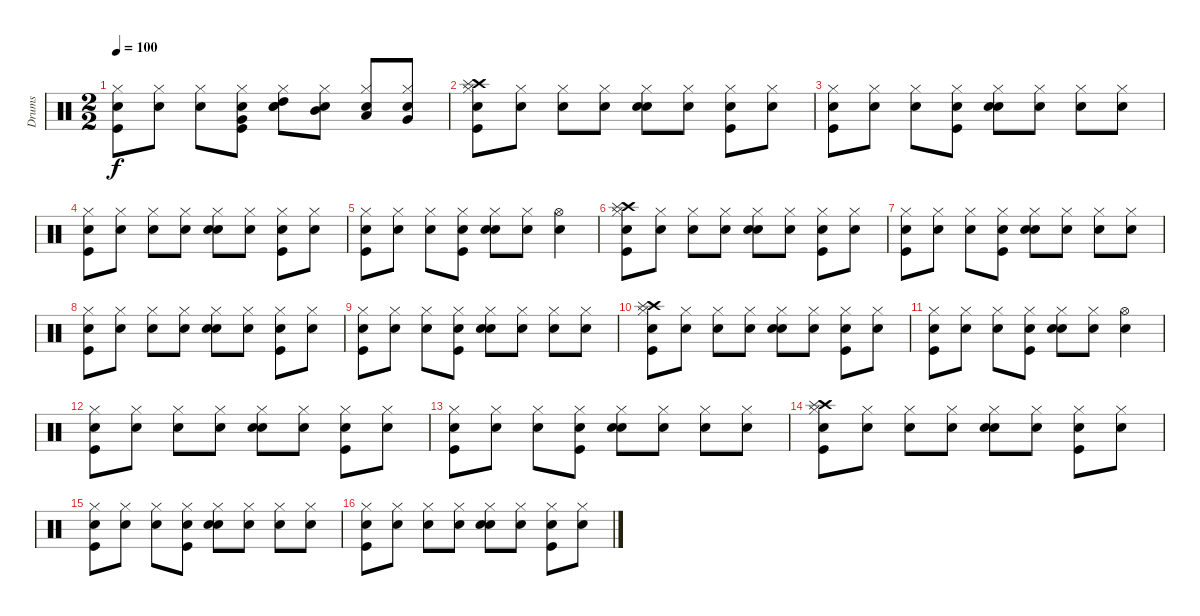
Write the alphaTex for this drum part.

\track ("Drums" "Drums") {instrument percussion}
\staff {score}
\articulation defaults
\ts (2 2)
\tempo 100
\clef neutral
\ks c
("Snare (hit)" "Kick (hit)" "Hi-Hat (closed)").8{dy f} ("Snare (hit)" "Hi-Hat (closed)").8 ("Snare (hit)" "Hi-Hat (closed)").8 ("Snare (hit)" "Very Low Tom (hit)" "Kick (hit)" "Hi-Hat (closed)").8 ("Snare (hit)" "High Tom (hit)" "Snare (hit) 2" "Hi-Hat (closed)").8 ("Snare (hit)" "Mid Tom (hit)" "Hi-Hat (closed)").8 ("Snare (hit)" "Low Tom (hit)" "Hi-Hat (closed)").8 ("Snare (hit)" "Very Low Tom (hit)" "Hi-Hat (closed)").8 |
("Snare (hit)" "Kick (hit)" "Crash high (hit)" "Splash (hit)" "Hi-Hat (closed)").8 ("Snare (hit)" "Hi-Hat (closed)").8 ("Snare (hit)" "Hi-Hat (closed)").8 ("Snare (hit)" "Hi-Hat (closed)").8 ("Snare (hit)" "Snare (hit) 2" "Hi-Hat (closed)").8 ("Snare (hit)" "Hi-Hat (closed)").8 ("Snare (hit)" "Kick (hit)" "Hi-Hat (closed)").8 ("Snare (hit)" "Hi-Hat (closed)").8 |
("Snare (hit)" "Kick (hit)" "Hi-Hat (closed)").8 ("Snare (hit)" "Hi-Hat (closed)").8 ("Snare (hit)" "Hi-Hat (closed)").8 ("Snare (hit)" "Kick (hit)" "Hi-Hat (closed)").8 ("Snare (hit)" "Snare (hit) 2" "Hi-Hat (closed)").8 ("Snare (hit)" "Hi-Hat (closed)").8 ("Snare (hit)" "Hi-Hat (closed)").8 ("Snare (hit)" "Hi-Hat (closed)").8 |
("Snare (hit)" "Kick (hit)" "Hi-Hat (closed)").8 ("Snare (hit)" "Hi-Hat (closed)").8 ("Snare (hit)" "Hi-Hat (closed)").8 ("Snare (hit)" "Hi-Hat (closed)").8 ("Snare (hit)" "Snare (hit) 2" "Hi-Hat (closed)").8 ("Snare (hit)" "Hi-Hat (closed)").8 ("Snare (hit)" "Kick (hit)" "Hi-Hat (closed)").8 ("Snare (hit)" "Hi-Hat (closed)").8 |
("Snare (hit)" "Kick (hit)" "Hi-Hat (closed)").8 ("Snare (hit)" "Hi-Hat (closed)").8 ("Snare (hit)" "Hi-Hat (closed)").8 ("Snare (hit)" "Kick (hit)" "Hi-Hat (closed)").8 ("Snare (hit)" "Snare (hit) 2" "Hi-Hat (closed)").8 ("Snare (hit)" "Hi-Hat (closed)").8 ("Snare (hit)" "Hi-Hat (open)").4 |
("Snare (hit)" "Kick (hit)" "Crash high (hit)" "Splash (hit)" "Hi-Hat (closed)").8 ("Snare (hit)" "Hi-Hat (closed)").8 ("Snare (hit)" "Hi-Hat (closed)").8 ("Snare (hit)" "Hi-Hat (closed)").8 ("Snare (hit)" "Snare (hit) 2" "Hi-Hat (closed)").8 ("Snare (hit)" "Hi-Hat (closed)").8 ("Snare (hit)" "Kick (hit)" "Hi-Hat (closed)").8 ("Snare (hit)" "Hi-Hat (closed)").8 |
("Snare (hit)" "Kick (hit)" "Hi-Hat (closed)").8 ("Snare (hit)" "Hi-Hat (closed)").8 ("Snare (hit)" "Hi-Hat (closed)").8 ("Snare (hit)" "Kick (hit)" "Hi-Hat (closed)").8 ("Snare (hit)" "Snare (hit) 2" "Hi-Hat (closed)").8 ("Snare (hit)" "Hi-Hat (closed)").8 ("Snare (hit)" "Hi-Hat (closed)").8 ("Snare (hit)" "Hi-Hat (closed)").8 |
("Snare (hit)" "Kick (hit)" "Hi-Hat (closed)").8 ("Snare (hit)" "Hi-Hat (closed)").8 ("Snare (hit)" "Hi-Hat (closed)").8 ("Snare (hit)" "Hi-Hat (closed)").8 ("Snare (hit)" "Snare (hit) 2" "Hi-Hat (closed)").8 ("Snare (hit)" "Hi-Hat (closed)").8 ("Snare (hit)" "Kick (hit)" "Hi-Hat (closed)").8 ("Snare (hit)" "Hi-Hat (closed)").8 |
("Snare (hit)" "Kick (hit)" "Hi-Hat (closed)").8 ("Snare (hit)" "Hi-Hat (closed)").8 ("Snare (hit)" "Hi-Hat (closed)").8 ("Snare (hit)" "Kick (hit)" "Hi-Hat (closed)").8 ("Snare (hit)" "Snare (hit) 2" "Hi-Hat (closed)").8 ("Snare (hit)" "Hi-Hat (closed)").8 ("Snare (hit)" "Hi-Hat (closed)").8 ("Snare (hit)" "Hi-Hat (closed)").8 |
("Snare (hit)" "Kick (hit)" "Crash high (hit)" "Splash (hit)" "Hi-Hat (closed)").8 ("Snare (hit)" "Hi-Hat (closed)").8 ("Snare (hit)" "Hi-Hat (closed)").8 ("Snare (hit)" "Hi-Hat (closed)").8 ("Snare (hit)" "Snare (hit) 2" "Hi-Hat (closed)").8 ("Snare (hit)" "Hi-Hat (closed)").8 ("Snare (hit)" "Kick (hit)" "Hi-Hat (closed)").8 ("Snare (hit)" "Hi-Hat (closed)").8 |
("Snare (hit)" "Kick (hit)" "Hi-Hat (closed)").8 ("Snare (hit)" "Hi-Hat (closed)").8 ("Snare (hit)" "Hi-Hat (closed)").8 ("Snare (hit)" "Kick (hit)" "Hi-Hat (closed)").8 ("Snare (hit)" "Snare (hit) 2" "Hi-Hat (closed)").8 ("Snare (hit)" "Hi-Hat (closed)").8 ("Snare (hit)" "Hi-Hat (open)").4 |
("Snare (hit)" "Kick (hit)" "Hi-Hat (closed)").8 ("Snare (hit)" "Hi-Hat (closed)").8 ("Snare (hit)" "Hi-Hat (closed)").8 ("Snare (hit)" "Hi-Hat (closed)").8 ("Snare (hit)" "Snare (hit) 2" "Hi-Hat (closed)").8 ("Snare (hit)" "Hi-Hat (closed)").8 ("Snare (hit)" "Kick (hit)" "Hi-Hat (closed)").8 ("Snare (hit)" "Hi-Hat (closed)").8 |
("Snare (hit)" "Kick (hit)" "Hi-Hat (closed)").8 ("Snare (hit)" "Hi-Hat (closed)").8 ("Snare (hit)" "Hi-Hat (closed)").8 ("Snare (hit)" "Kick (hit)" "Hi-Hat (closed)").8 ("Snare (hit)" "Snare (hit) 2" "Hi-Hat (closed)").8 ("Snare (hit)" "Hi-Hat (closed)").8 ("Snare (hit)" "Hi-Hat (closed)").8 ("Snare (hit)" "Hi-Hat (closed)").8 |
("Snare (hit)" "Kick (hit)" "Crash high (hit)" "Splash (hit)" "Hi-Hat (closed)").8 ("Snare (hit)" "Hi-Hat (closed)").8 ("Snare (hit)" "Hi-Hat (closed)").8 ("Snare (hit)" "Hi-Hat (closed)").8 ("Snare (hit)" "Snare (hit) 2" "Hi-Hat (closed)").8 ("Snare (hit)" "Hi-Hat (closed)").8 ("Snare (hit)" "Kick (hit)" "Hi-Hat (closed)").8 ("Snare (hit)" "Hi-Hat (closed)").8 |
("Snare (hit)" "Kick (hit)" "Hi-Hat (closed)").8 ("Snare (hit)" "Hi-Hat (closed)").8 ("Snare (hit)" "Hi-Hat (closed)").8 ("Snare (hit)" "Kick (hit)" "Hi-Hat (closed)").8 ("Snare (hit)" "Snare (hit) 2" "Hi-Hat (closed)").8 ("Snare (hit)" "Hi-Hat (closed)").8 ("Snare (hit)" "Hi-Hat (closed)").8 ("Snare (hit)" "Hi-Hat (closed)").8 |
("Snare (hit)" "Kick (hit)" "Hi-Hat (closed)").8 ("Snare (hit)" "Hi-Hat (closed)").8 ("Snare (hit)" "Hi-Hat (closed)").8 ("Snare (hit)" "Hi-Hat (closed)").8 ("Snare (hit)" "Snare (hit) 2" "Hi-Hat (closed)").8 ("Snare (hit)" "Hi-Hat (closed)").8 ("Snare (hit)" "Kick (hit)" "Hi-Hat (closed)").8 ("Snare (hit)" "Hi-Hat (closed)").8
